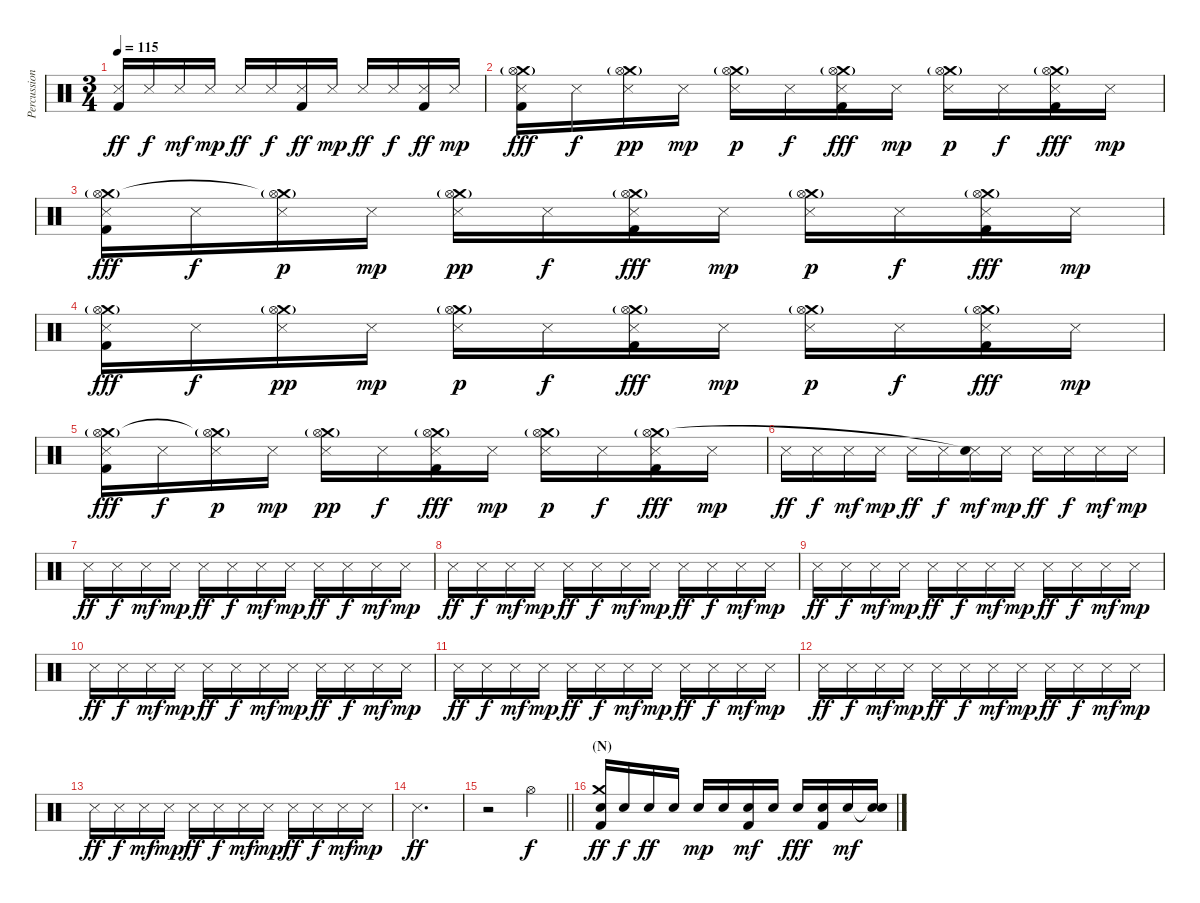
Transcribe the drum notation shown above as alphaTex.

\track ("Percussion 1" "Percussion") {instrument percussion}
\staff {score}
\articulation defaults
\ts (3 4)
\tempo 115
\clef neutral
\ks c
("Snare (side stick) 3" "Kick (hit) 2").16{dy ff} "Snare (side stick) 3".16{dy f} "Snare (side stick) 3".16{dy mf} "Snare (side stick) 3".16{dy mp} "Snare (side stick) 3".16{dy ff} "Snare (side stick) 3".16{dy f} ("Snare (side stick) 3" "Kick (hit) 2").16{dy ff} "Snare (side stick) 3".16{dy mp} "Snare (side stick) 3".16{dy ff} "Snare (side stick) 3".16{dy f} ("Snare (side stick) 3" "Kick (hit) 2").16{dy ff} "Snare (side stick) 3".16{dy mp} |
("Snare (side stick) 3" "Crash medium (hit)"{g} "Hi-Hat (open)"{g} "Kick (hit) 2").16{dy fff} "Snare (side stick) 3".16{dy f} ("Snare (side stick) 3" "Crash medium (hit)"{g} "Hi-Hat (open)"{g}).16{dy pp} "Snare (side stick) 3".16{dy mp} ("Snare (side stick) 3" "Crash medium (hit)"{g} "Hi-Hat (open)"{g}).16{dy p} "Snare (side stick) 3".16{dy f} ("Snare (side stick) 3" "Crash medium (hit)"{g} "Hi-Hat (open)"{g} "Kick (hit) 2").16{dy fff} "Snare (side stick) 3".16{dy mp} ("Snare (side stick) 3" "Crash medium (hit)"{g} "Hi-Hat (open)"{g}).16{dy p} "Snare (side stick) 3".16{dy f} ("Snare (side stick) 3" "Crash medium (hit)"{g} "Hi-Hat (open)"{g} "Kick (hit) 2").16{dy fff} "Snare (side stick) 3".16{dy mp} |
("Snare (side stick) 3" "Crash medium (hit)"{g} "Hi-Hat (open)"{g} "Kick (hit) 2").16{dy fff} "Snare (side stick) 3".16{dy f} ("Snare (side stick) 3" "Crash medium (hit)"{t} "Hi-Hat (open)"{g}).16{dy p} "Snare (side stick) 3".16{dy mp} ("Snare (side stick) 3" "Crash medium (hit)"{g} "Hi-Hat (open)"{g}).16{dy pp} "Snare (side stick) 3".16{dy f} ("Snare (side stick) 3" "Crash medium (hit)"{g} "Hi-Hat (open)"{g} "Kick (hit) 2").16{dy fff} "Snare (side stick) 3".16{dy mp} ("Snare (side stick) 3" "Crash medium (hit)"{g} "Hi-Hat (open)"{g}).16{dy p} "Snare (side stick) 3".16{dy f} ("Snare (side stick) 3" "Crash medium (hit)"{g} "Hi-Hat (open)"{g} "Kick (hit) 2").16{dy fff} "Snare (side stick) 3".16{dy mp} |
("Snare (side stick) 3" "Crash medium (hit)"{g} "Hi-Hat (open)"{g} "Kick (hit) 2").16{dy fff} "Snare (side stick) 3".16{dy f} ("Snare (side stick) 3" "Crash medium (hit)"{g} "Hi-Hat (open)"{g}).16{dy pp} "Snare (side stick) 3".16{dy mp} ("Snare (side stick) 3" "Crash medium (hit)"{g} "Hi-Hat (open)"{g}).16{dy p} "Snare (side stick) 3".16{dy f} ("Snare (side stick) 3" "Crash medium (hit)"{g} "Hi-Hat (open)"{g} "Kick (hit) 2").16{dy fff} "Snare (side stick) 3".16{dy mp} ("Snare (side stick) 3" "Crash medium (hit)"{g} "Hi-Hat (open)"{g}).16{dy p} "Snare (side stick) 3".16{dy f} ("Snare (side stick) 3" "Crash medium (hit)"{g} "Hi-Hat (open)"{g} "Kick (hit) 2").16{dy fff} "Snare (side stick) 3".16{dy mp} |
("Snare (side stick) 3" "Crash medium (hit)"{g} "Hi-Hat (open)"{g} "Kick (hit) 2").16{dy fff} "Snare (side stick) 3".16{dy f} ("Snare (side stick) 3" "Crash medium (hit)"{t} "Hi-Hat (open)"{g}).16{dy p} "Snare (side stick) 3".16{dy mp} ("Snare (side stick) 3" "Crash medium (hit)"{g} "Hi-Hat (open)"{g}).16{dy pp} "Snare (side stick) 3".16{dy f} ("Snare (side stick) 3" "Crash medium (hit)"{g} "Hi-Hat (open)"{g} "Kick (hit) 2").16{dy fff} "Snare (side stick) 3".16{dy mp} ("Snare (side stick) 3" "Crash medium (hit)"{g} "Hi-Hat (open)"{g}).16{dy p} "Snare (side stick) 3".16{dy f} ("Snare (side stick) 3" "Crash medium (hit)"{g} "Hi-Hat (open)"{g} "Kick (hit) 2").16{dy fff} "Snare (side stick) 3".16{dy mp} |
"Snare (side stick) 3".16{dy ff} "Snare (side stick) 3".16{dy f} "Snare (side stick) 3".16{dy mf} "Snare (side stick) 3".16{dy mp} "Snare (side stick) 3".16{dy ff} "Snare (side stick) 3".16{dy f} ("Snare (side stick) 3" "Snare (hit)"{t}).16{dy mf} "Snare (side stick) 3".16{dy mp} "Snare (side stick) 3".16{dy ff} "Snare (side stick) 3".16{dy f} "Snare (side stick) 3".16{dy mf} "Snare (side stick) 3".16{dy mp} |
"Snare (side stick) 3".16{dy ff} "Snare (side stick) 3".16{dy f} "Snare (side stick) 3".16{dy mf} "Snare (side stick) 3".16{dy mp} "Snare (side stick) 3".16{dy ff} "Snare (side stick) 3".16{dy f} "Snare (side stick) 3".16{dy mf} "Snare (side stick) 3".16{dy mp} "Snare (side stick) 3".16{dy ff} "Snare (side stick) 3".16{dy f} "Snare (side stick) 3".16{dy mf} "Snare (side stick) 3".16{dy mp} |
"Snare (side stick) 3".16{dy ff} "Snare (side stick) 3".16{dy f} "Snare (side stick) 3".16{dy mf} "Snare (side stick) 3".16{dy mp} "Snare (side stick) 3".16{dy ff} "Snare (side stick) 3".16{dy f} "Snare (side stick) 3".16{dy mf} "Snare (side stick) 3".16{dy mp} "Snare (side stick) 3".16{dy ff} "Snare (side stick) 3".16{dy f} "Snare (side stick) 3".16{dy mf} "Snare (side stick) 3".16{dy mp} |
"Snare (side stick) 3".16{dy ff} "Snare (side stick) 3".16{dy f} "Snare (side stick) 3".16{dy mf} "Snare (side stick) 3".16{dy mp} "Snare (side stick) 3".16{dy ff} "Snare (side stick) 3".16{dy f} "Snare (side stick) 3".16{dy mf} "Snare (side stick) 3".16{dy mp} "Snare (side stick) 3".16{dy ff} "Snare (side stick) 3".16{dy f} "Snare (side stick) 3".16{dy mf} "Snare (side stick) 3".16{dy mp} |
"Snare (side stick) 3".16{dy ff} "Snare (side stick) 3".16{dy f} "Snare (side stick) 3".16{dy mf} "Snare (side stick) 3".16{dy mp} "Snare (side stick) 3".16{dy ff} "Snare (side stick) 3".16{dy f} "Snare (side stick) 3".16{dy mf} "Snare (side stick) 3".16{dy mp} "Snare (side stick) 3".16{dy ff} "Snare (side stick) 3".16{dy f} "Snare (side stick) 3".16{dy mf} "Snare (side stick) 3".16{dy mp} |
"Snare (side stick) 3".16{dy ff} "Snare (side stick) 3".16{dy f} "Snare (side stick) 3".16{dy mf} "Snare (side stick) 3".16{dy mp} "Snare (side stick) 3".16{dy ff} "Snare (side stick) 3".16{dy f} "Snare (side stick) 3".16{dy mf} "Snare (side stick) 3".16{dy mp} "Snare (side stick) 3".16{dy ff} "Snare (side stick) 3".16{dy f} "Snare (side stick) 3".16{dy mf} "Snare (side stick) 3".16{dy mp} |
"Snare (side stick) 3".16{dy ff} "Snare (side stick) 3".16{dy f} "Snare (side stick) 3".16{dy mf} "Snare (side stick) 3".16{dy mp} "Snare (side stick) 3".16{dy ff} "Snare (side stick) 3".16{dy f} "Snare (side stick) 3".16{dy mf} "Snare (side stick) 3".16{dy mp} "Snare (side stick) 3".16{dy ff} "Snare (side stick) 3".16{dy f} "Snare (side stick) 3".16{dy mf} "Snare (side stick) 3".16{dy mp} |
"Snare (side stick) 3".16{dy ff} "Snare (side stick) 3".16{dy f} "Snare (side stick) 3".16{dy mf} "Snare (side stick) 3".16{dy mp} "Snare (side stick) 3".16{dy ff} "Snare (side stick) 3".16{dy f} "Snare (side stick) 3".16{dy mf} "Snare (side stick) 3".16{dy mp} "Snare (side stick) 3".16{dy ff} "Snare (side stick) 3".16{dy f} "Snare (side stick) 3".16{dy mf} "Snare (side stick) 3".16{dy mp} |
"Snare (side stick) 3".2{d dy ff} |
\barLineRight lightlight
r.2 "Hi-Hat (open)".4{dy f} |
\section ("" "(N)")
("Crash medium (hit)" "Snare (hit) 2" "Kick (hit) 2").16{dy ff volume 14} "Snare (hit) 2".16{dy f} "Snare (hit) 2".16{dy ff} "Snare (hit) 2".16 "Snare (hit) 2".16{dy mp} "Snare (hit) 2".16 ("Snare (hit) 2" "Kick (hit) 2").16{dy mf} "Snare (hit) 2".16 "Snare (hit) 2".16{dy fff} ("Snare (hit) 2" "Kick (hit) 2").16 "Snare (hit) 2".16{dy mf} ("Snare (hit)"{t} "Snare (hit) 2").16
